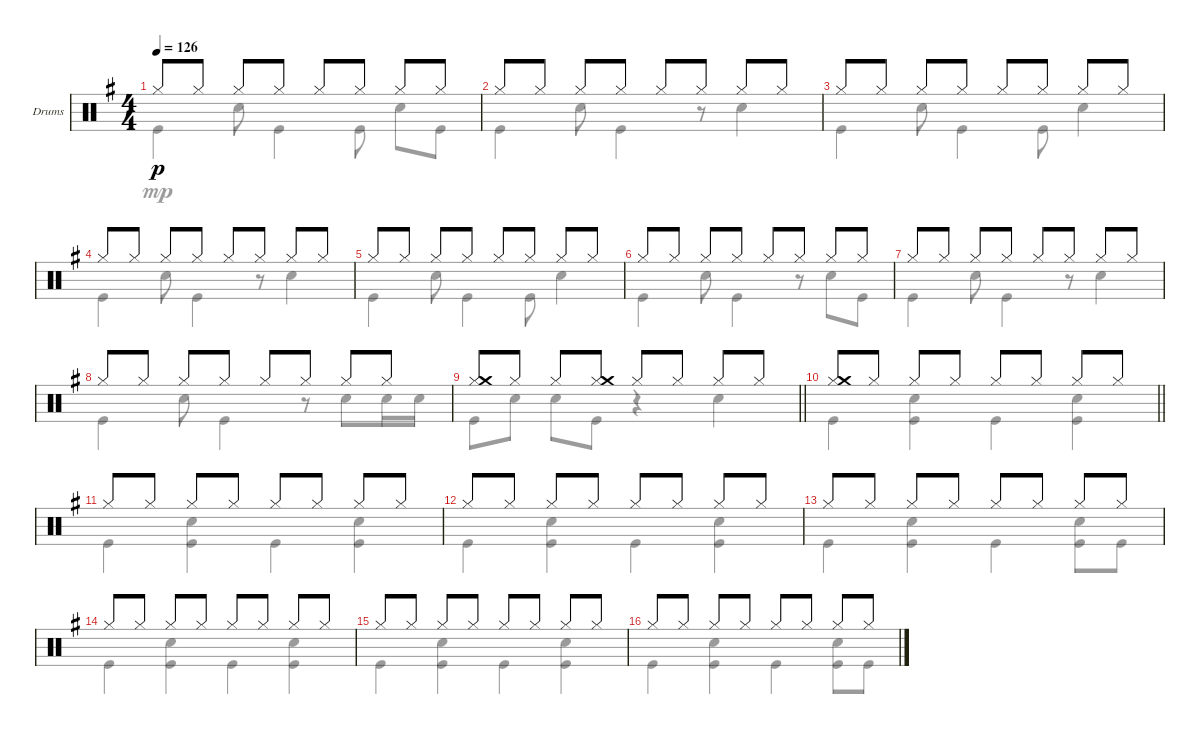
\bracketExtendMode groupsimilarinstruments
\firstSystemTrackNameOrientation horizontal
\otherSystemsTrackNameOrientation horizontal
\track ("Ударные" "Drums") {instrument percussion}
\staff {score}
\articulation defaults
\voice
\ts (4 4)
\tempo 126
\clef neutral
\ks eminor "Hi-Hat (closed)".8{dy p} "Hi-Hat (closed)".8 "Hi-Hat (closed)".8 "Hi-Hat (closed)".8 "Hi-Hat (closed)".8 "Hi-Hat (closed)".8 "Hi-Hat (closed)".8 "Hi-Hat (closed)".8
|
"Hi-Hat (closed)".8 "Hi-Hat (closed)".8 "Hi-Hat (closed)".8 "Hi-Hat (closed)".8 "Hi-Hat (closed)".8 "Hi-Hat (closed)".8 "Hi-Hat (closed)".8 "Hi-Hat (closed)".8 |
"Hi-Hat (closed)".8 "Hi-Hat (closed)".8 "Hi-Hat (closed)".8 "Hi-Hat (closed)".8 "Hi-Hat (closed)".8 "Hi-Hat (closed)".8 "Hi-Hat (closed)".8 "Hi-Hat (closed)".8 |
"Hi-Hat (closed)".8 "Hi-Hat (closed)".8 "Hi-Hat (closed)".8 "Hi-Hat (closed)".8 "Hi-Hat (closed)".8 "Hi-Hat (closed)".8 "Hi-Hat (closed)".8 "Hi-Hat (closed)".8 |
"Hi-Hat (closed)".8 "Hi-Hat (closed)".8 "Hi-Hat (closed)".8 "Hi-Hat (closed)".8 "Hi-Hat (closed)".8 "Hi-Hat (closed)".8 "Hi-Hat (closed)".8 "Hi-Hat (closed)".8 |
"Hi-Hat (closed)".8 "Hi-Hat (closed)".8 "Hi-Hat (closed)".8 "Hi-Hat (closed)".8 "Hi-Hat (closed)".8 "Hi-Hat (closed)".8 "Hi-Hat (closed)".8 "Hi-Hat (closed)".8 |
"Hi-Hat (closed)".8 "Hi-Hat (closed)".8 "Hi-Hat (closed)".8 "Hi-Hat (closed)".8 "Hi-Hat (closed)".8 "Hi-Hat (closed)".8 "Hi-Hat (closed)".8 "Hi-Hat (closed)".8 |
"Hi-Hat (closed)".8 "Hi-Hat (closed)".8 "Hi-Hat (closed)".8 "Hi-Hat (closed)".8 "Hi-Hat (closed)".8 "Hi-Hat (closed)".8 "Hi-Hat (closed)".8 "Hi-Hat (closed)".8 |
\barLineRight lightlight
("Hi-Hat (closed)" "Crash medium (hit)").8 "Hi-Hat (closed)".8 "Hi-Hat (closed)".8 ("Hi-Hat (closed)" "Crash medium (hit)").8 "Hi-Hat (closed)".8 "Hi-Hat (closed)".8 "Hi-Hat (closed)".8 "Hi-Hat (closed)".8 |
\section ("" "")
\barLineRight lightlight
("Hi-Hat (closed)" "Crash medium (hit)").8 "Hi-Hat (closed)".8 "Hi-Hat (closed)".8 "Hi-Hat (closed)".8 "Hi-Hat (closed)".8 "Hi-Hat (closed)".8 "Hi-Hat (closed)".8 "Hi-Hat (closed)".8 |
\section ("" "")
"Hi-Hat (closed)".8 "Hi-Hat (closed)".8 "Hi-Hat (closed)".8 "Hi-Hat (closed)".8 "Hi-Hat (closed)".8 "Hi-Hat (closed)".8 "Hi-Hat (closed)".8 "Hi-Hat (closed)".8 |
"Hi-Hat (closed)".8 "Hi-Hat (closed)".8 "Hi-Hat (closed)".8 "Hi-Hat (closed)".8 "Hi-Hat (closed)".8 "Hi-Hat (closed)".8 "Hi-Hat (closed)".8 "Hi-Hat (closed)".8 |
"Hi-Hat (closed)".8 "Hi-Hat (closed)".8 "Hi-Hat (closed)".8 "Hi-Hat (closed)".8 "Hi-Hat (closed)".8 "Hi-Hat (closed)".8 "Hi-Hat (closed)".8 "Hi-Hat (closed)".8 |
"Hi-Hat (closed)".8 "Hi-Hat (closed)".8 "Hi-Hat (closed)".8 "Hi-Hat (closed)".8 "Hi-Hat (closed)".8 "Hi-Hat (closed)".8 "Hi-Hat (closed)".8 "Hi-Hat (closed)".8 |
"Hi-Hat (closed)".8 "Hi-Hat (closed)".8 "Hi-Hat (closed)".8 "Hi-Hat (closed)".8 "Hi-Hat (closed)".8 "Hi-Hat (closed)".8 "Hi-Hat (closed)".8 "Hi-Hat (closed)".8 |
"Hi-Hat (closed)".8 "Hi-Hat (closed)".8 "Hi-Hat (closed)".8 "Hi-Hat (closed)".8 "Hi-Hat (closed)".8 "Hi-Hat (closed)".8 "Hi-Hat (closed)".8 "Hi-Hat (closed)".8
\voice
\clef neutral
\ottava regular
\simile none
\ks eminor "Kick (hit)".4{dy mp} "Snare (hit) 2".8 "Kick (hit)".4 "Kick (hit)".8 "Snare (hit) 2".8 "Kick (hit)".8
|
"Kick (hit)".4 "Snare (hit) 2".8 "Kick (hit)".4 r.8 "Snare (hit) 2".4 |
"Kick (hit)".4 "Snare (hit) 2".8 "Kick (hit)".4 "Kick (hit)".8 "Snare (hit) 2".4 |
"Kick (hit)".4 "Snare (hit) 2".8 "Kick (hit)".4 r.8 "Snare (hit) 2".4 |
"Kick (hit)".4 "Snare (hit) 2".8 "Kick (hit)".4 "Kick (hit)".8 "Snare (hit) 2".4 |
"Kick (hit)".4 "Snare (hit) 2".8 "Kick (hit)".4 r.8 "Snare (hit) 2".8 "Kick (hit)".8 |
"Kick (hit)".4 "Snare (hit) 2".8 "Kick (hit)".4 r.8 "Snare (hit) 2".4 |
"Kick (hit)".4 "Snare (hit) 2".8 "Kick (hit)".4 r.8 "Snare (hit) 2".8 "Snare (hit) 2".16 "Snare (hit) 2".16 |
\barLineRight lightlight "Kick (hit)".8 "Snare (hit) 2".8 "Snare (hit) 2".8 "Kick (hit)".8
r.4 "Snare (hit) 2".4 |
\barLineRight lightlight "Kick (hit)".4
("Snare (hit) 2" "Kick (hit)").4 "Kick (hit)".4 ("Snare (hit) 2" "Kick (hit)").4 |
"Kick (hit)".4 ("Snare (hit) 2" "Kick (hit)").4 "Kick (hit)".4 ("Snare (hit) 2" "Kick (hit)").4 |
"Kick (hit)".4 ("Snare (hit) 2" "Kick (hit)").4 "Kick (hit)".4 ("Snare (hit) 2" "Kick (hit)").4 |
"Kick (hit)".4 ("Snare (hit) 2" "Kick (hit)").4 "Kick (hit)".4 ("Snare (hit) 2" "Kick (hit)").8 "Kick (hit)".8 |
"Kick (hit)".4 ("Snare (hit) 2" "Kick (hit)").4 "Kick (hit)".4 ("Snare (hit) 2" "Kick (hit)").4 |
"Kick (hit)".4 ("Snare (hit) 2" "Kick (hit)").4 "Kick (hit)".4 ("Snare (hit) 2" "Kick (hit)").4 |
"Kick (hit)".4 ("Snare (hit) 2" "Kick (hit)").4 "Kick (hit)".4 ("Snare (hit) 2" "Kick (hit)").8 "Kick (hit)".8
